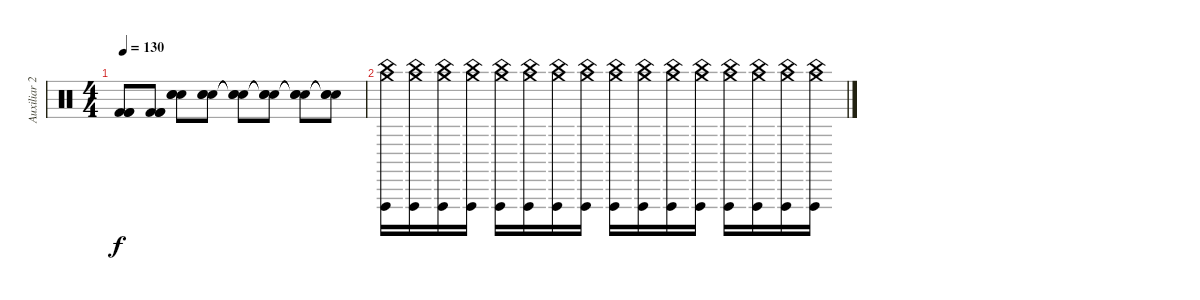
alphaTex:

\track ("Auxiliar 2" "Auxiliar 2") {instrument percussion}
\staff {score}
\articulation defaults
\ts (4 4)
\tempo 130
\clef neutral
\ks c
("Kick (hit) 2" "Kick (hit) 2" "Kick (hit) 2").8{dy f} ("Kick (hit) 2" "Kick (hit) 2" "Kick (hit) 2").8 ("Snare (hit) 2" "Snare (hit) 2" "Snare (hit) 2").8 ("Snare (hit) 2" "Snare (hit) 2" "Snare (hit) 2").8 ("Snare (hit)"{t} "Snare (hit)"{t} "Snare (hit)"{t}).8 ("Snare (hit)"{t} "Snare (hit)"{t} "Snare (hit)"{t}).8 ("Snare (hit)"{t} "Snare (hit)"{t} "Snare (hit)"{t}).8 ("Snare (hit)"{t} "Snare (hit)"{t} "Snare (hit)"{t}).8 |
("China (hit)" "Vibraslap (hit)" "Crash medium (hit)").16 ("China (hit)" "Vibraslap (hit)" "Crash medium (hit)").16 ("China (hit)" "Vibraslap (hit)" "Crash medium (hit)").16 ("China (hit)" "Vibraslap (hit)" "Crash medium (hit)").16 ("China (hit)" "Vibraslap (hit)" "Crash medium (hit)").16 ("China (hit)" "Vibraslap (hit)" "Crash medium (hit)").16 ("China (hit)" "Vibraslap (hit)" "Crash medium (hit)").16 ("China (hit)" "Vibraslap (hit)" "Crash medium (hit)").16 ("China (hit)" "Vibraslap (hit)" "Crash medium (hit)").16 ("China (hit)" "Vibraslap (hit)" "Crash medium (hit)").16 ("China (hit)" "Vibraslap (hit)" "Crash medium (hit)").16 ("China (hit)" "Vibraslap (hit)" "Crash medium (hit)").16 ("China (hit)" "Vibraslap (hit)" "Crash medium (hit)").16 ("China (hit)" "Vibraslap (hit)" "Crash medium (hit)").16 ("China (hit)" "Vibraslap (hit)" "Crash medium (hit)").16 ("China (hit)" "Vibraslap (hit)" "Crash medium (hit)").16
